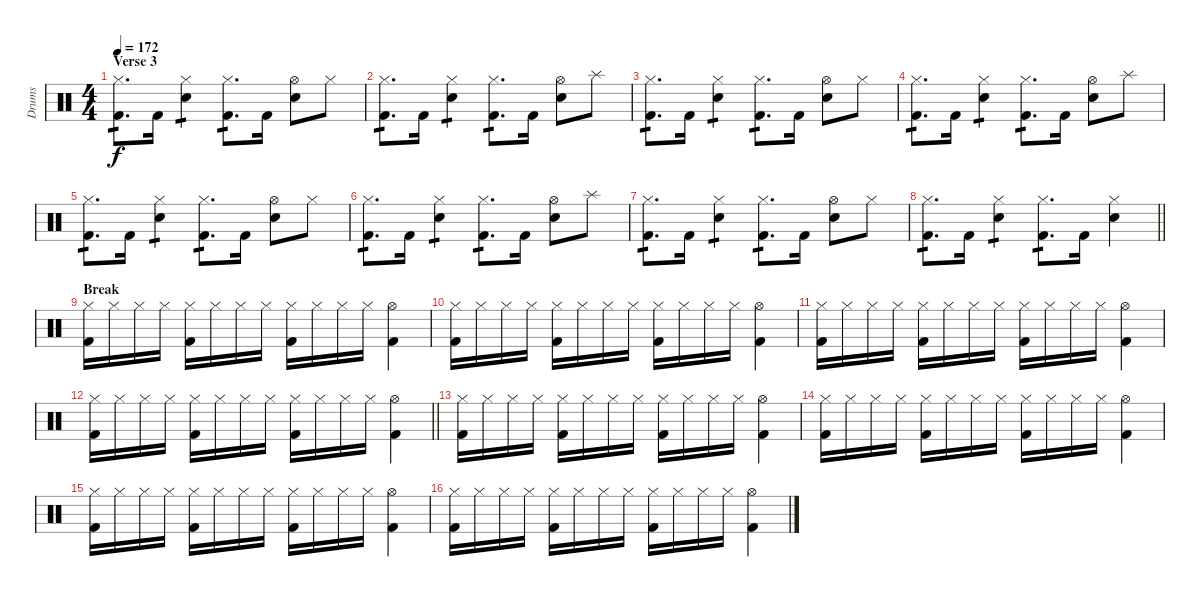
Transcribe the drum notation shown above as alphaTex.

\track ("Drums" "Drums") {instrument percussion}
\staff {score}
\articulation defaults
\ts (4 4)
\section ("" "Verse 3")
\tempo 172
\clef neutral
\ks c
("Hi-Hat (closed)" "Kick (hit) 2").8{d tp 1 dy f} "Kick (hit) 2".16 ("Hi-Hat (closed)" "Electric Snare (hit)").4{tp 1} ("Hi-Hat (closed)" "Kick (hit) 2").8{d tp 1} "Kick (hit) 2".16 ("Hi-Hat (open)" "Electric Snare (hit)").8 "Hi-Hat (closed)".8 |
("Hi-Hat (closed)" "Kick (hit) 2").8{d tp 1} "Kick (hit) 2".16 ("Hi-Hat (closed)" "Electric Snare (hit)").4{tp 1} ("Hi-Hat (closed)" "Kick (hit) 2").8{d tp 1} "Kick (hit) 2".16 ("Hi-Hat (open)" "Electric Snare (hit)").8 "Splash (hit)".8 |
("Hi-Hat (closed)" "Kick (hit) 2").8{d tp 1} "Kick (hit) 2".16 ("Hi-Hat (closed)" "Electric Snare (hit)").4{tp 1} ("Hi-Hat (closed)" "Kick (hit) 2").8{d tp 1} "Kick (hit) 2".16 ("Hi-Hat (open)" "Electric Snare (hit)").8 "Hi-Hat (closed)".8 |
("Hi-Hat (closed)" "Kick (hit) 2").8{d tp 1} "Kick (hit) 2".16 ("Hi-Hat (closed)" "Electric Snare (hit)").4{tp 1} ("Hi-Hat (closed)" "Kick (hit) 2").8{d tp 1} "Kick (hit) 2".16 ("Hi-Hat (open)" "Electric Snare (hit)").8 "Splash (hit)".8 |
("Hi-Hat (closed)" "Kick (hit) 2").8{d tp 1} "Kick (hit) 2".16 ("Hi-Hat (closed)" "Electric Snare (hit)").4{tp 1} ("Hi-Hat (closed)" "Kick (hit) 2").8{d tp 1} "Kick (hit) 2".16 ("Hi-Hat (open)" "Electric Snare (hit)").8 "Hi-Hat (closed)".8 |
("Hi-Hat (closed)" "Kick (hit) 2").8{d tp 1} "Kick (hit) 2".16 ("Hi-Hat (closed)" "Electric Snare (hit)").4{tp 1} ("Hi-Hat (closed)" "Kick (hit) 2").8{d tp 1} "Kick (hit) 2".16 ("Hi-Hat (open)" "Electric Snare (hit)").8 "Splash (hit)".8 |
("Hi-Hat (closed)" "Kick (hit) 2").8{d tp 1} "Kick (hit) 2".16 ("Hi-Hat (closed)" "Electric Snare (hit)").4{tp 1} ("Hi-Hat (closed)" "Kick (hit) 2").8{d tp 1} "Kick (hit) 2".16 ("Hi-Hat (open)" "Electric Snare (hit)").8 "Hi-Hat (closed)".8 |
\barLineRight lightlight
("Hi-Hat (closed)" "Kick (hit) 2").8{d tp 1} "Kick (hit) 2".16 ("Hi-Hat (closed)" "Electric Snare (hit)").4{tp 1} ("Hi-Hat (closed)" "Kick (hit) 2").8{d tp 1} "Kick (hit) 2".16 ("Hi-Hat (closed)" "Electric Snare (hit)").4 |
\section ("" "Break")
("Hi-Hat (closed)" "Kick (hit) 2").16 "Hi-Hat (closed)".16 "Hi-Hat (closed)".16 "Hi-Hat (closed)".16 ("Hi-Hat (closed)" "Kick (hit) 2").16 "Hi-Hat (closed)".16 "Hi-Hat (closed)".16 "Hi-Hat (closed)".16 ("Hi-Hat (closed)" "Kick (hit) 2").16 "Hi-Hat (closed)".16 "Hi-Hat (closed)".16 "Hi-Hat (closed)".16 ("Hi-Hat (open)" "Kick (hit) 2").4 |
("Hi-Hat (closed)" "Kick (hit) 2").16 "Hi-Hat (closed)".16 "Hi-Hat (closed)".16 "Hi-Hat (closed)".16 ("Hi-Hat (closed)" "Kick (hit) 2").16 "Hi-Hat (closed)".16 "Hi-Hat (closed)".16 "Hi-Hat (closed)".16 ("Hi-Hat (closed)" "Kick (hit) 2").16 "Hi-Hat (closed)".16 "Hi-Hat (closed)".16 "Hi-Hat (closed)".16 ("Hi-Hat (open)" "Kick (hit) 2").4 |
("Hi-Hat (closed)" "Kick (hit) 2").16 "Hi-Hat (closed)".16 "Hi-Hat (closed)".16 "Hi-Hat (closed)".16 ("Hi-Hat (closed)" "Kick (hit) 2").16 "Hi-Hat (closed)".16 "Hi-Hat (closed)".16 "Hi-Hat (closed)".16 ("Hi-Hat (closed)" "Kick (hit) 2").16 "Hi-Hat (closed)".16 "Hi-Hat (closed)".16 "Hi-Hat (closed)".16 ("Hi-Hat (open)" "Kick (hit) 2").4 |
\barLineRight lightlight
("Hi-Hat (closed)" "Kick (hit) 2").16 "Hi-Hat (closed)".16 "Hi-Hat (closed)".16 "Hi-Hat (closed)".16 ("Hi-Hat (closed)" "Kick (hit) 2").16 "Hi-Hat (closed)".16 "Hi-Hat (closed)".16 "Hi-Hat (closed)".16 ("Hi-Hat (closed)" "Kick (hit) 2").16 "Hi-Hat (closed)".16 "Hi-Hat (closed)".16 "Hi-Hat (closed)".16 ("Hi-Hat (open)" "Kick (hit) 2").4 |
("Hi-Hat (closed)" "Kick (hit) 2").16 "Hi-Hat (closed)".16 "Hi-Hat (closed)".16 "Hi-Hat (closed)".16 ("Hi-Hat (closed)" "Kick (hit) 2").16 "Hi-Hat (closed)".16 "Hi-Hat (closed)".16 "Hi-Hat (closed)".16 ("Hi-Hat (closed)" "Kick (hit) 2").16 "Hi-Hat (closed)".16 "Hi-Hat (closed)".16 "Hi-Hat (closed)".16 ("Hi-Hat (open)" "Kick (hit) 2").4 |
("Hi-Hat (closed)" "Kick (hit) 2").16 "Hi-Hat (closed)".16 "Hi-Hat (closed)".16 "Hi-Hat (closed)".16 ("Hi-Hat (closed)" "Kick (hit) 2").16 "Hi-Hat (closed)".16 "Hi-Hat (closed)".16 "Hi-Hat (closed)".16 ("Hi-Hat (closed)" "Kick (hit) 2").16 "Hi-Hat (closed)".16 "Hi-Hat (closed)".16 "Hi-Hat (closed)".16 ("Hi-Hat (open)" "Kick (hit) 2").4 |
("Hi-Hat (closed)" "Kick (hit) 2").16 "Hi-Hat (closed)".16 "Hi-Hat (closed)".16 "Hi-Hat (closed)".16 ("Hi-Hat (closed)" "Kick (hit) 2").16 "Hi-Hat (closed)".16 "Hi-Hat (closed)".16 "Hi-Hat (closed)".16 ("Hi-Hat (closed)" "Kick (hit) 2").16 "Hi-Hat (closed)".16 "Hi-Hat (closed)".16 "Hi-Hat (closed)".16 ("Hi-Hat (open)" "Kick (hit) 2").4 |
("Hi-Hat (closed)" "Kick (hit) 2").16 "Hi-Hat (closed)".16 "Hi-Hat (closed)".16 "Hi-Hat (closed)".16 ("Hi-Hat (closed)" "Kick (hit) 2").16 "Hi-Hat (closed)".16 "Hi-Hat (closed)".16 "Hi-Hat (closed)".16 ("Hi-Hat (closed)" "Kick (hit) 2").16 "Hi-Hat (closed)".16 "Hi-Hat (closed)".16 "Hi-Hat (closed)".16 ("Hi-Hat (open)" "Kick (hit) 2").4
